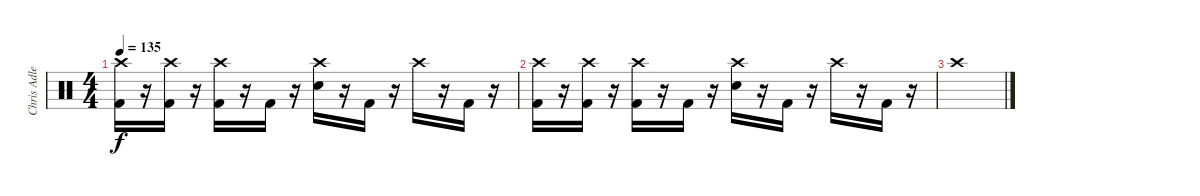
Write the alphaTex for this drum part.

\track ("Chris Adler" "Chris Adle") {instrument percussion}
\staff {score}
\articulation defaults
\ts (4 4)
\tempo 135
\clef neutral
\ks c
("Crash high (hit)" "Kick (hit) 2").16{dy f} r.16 ("Crash high (hit)" "Kick (hit) 2").16 r.16 ("Crash high (hit)" "Kick (hit) 2").16 r.16 "Kick (hit) 2".16 r.16 ("Crash high (hit)" "Electric Snare (hit)").16 r.16 "Kick (hit) 2".16 r.16 "Crash high (hit)".16 r.16 "Kick (hit) 2".16 r.16 |
("Crash high (hit)" "Kick (hit) 2").16 r.16 ("Crash high (hit)" "Kick (hit) 2").16 r.16 ("Crash high (hit)" "Kick (hit) 2").16 r.16 "Kick (hit) 2".16 r.16 ("Crash high (hit)" "Electric Snare (hit)").16 r.16 "Kick (hit) 2".16 r.16 "Crash high (hit)".16 r.16 "Kick (hit) 2".16 r.16 |
"Crash high (hit)".1
